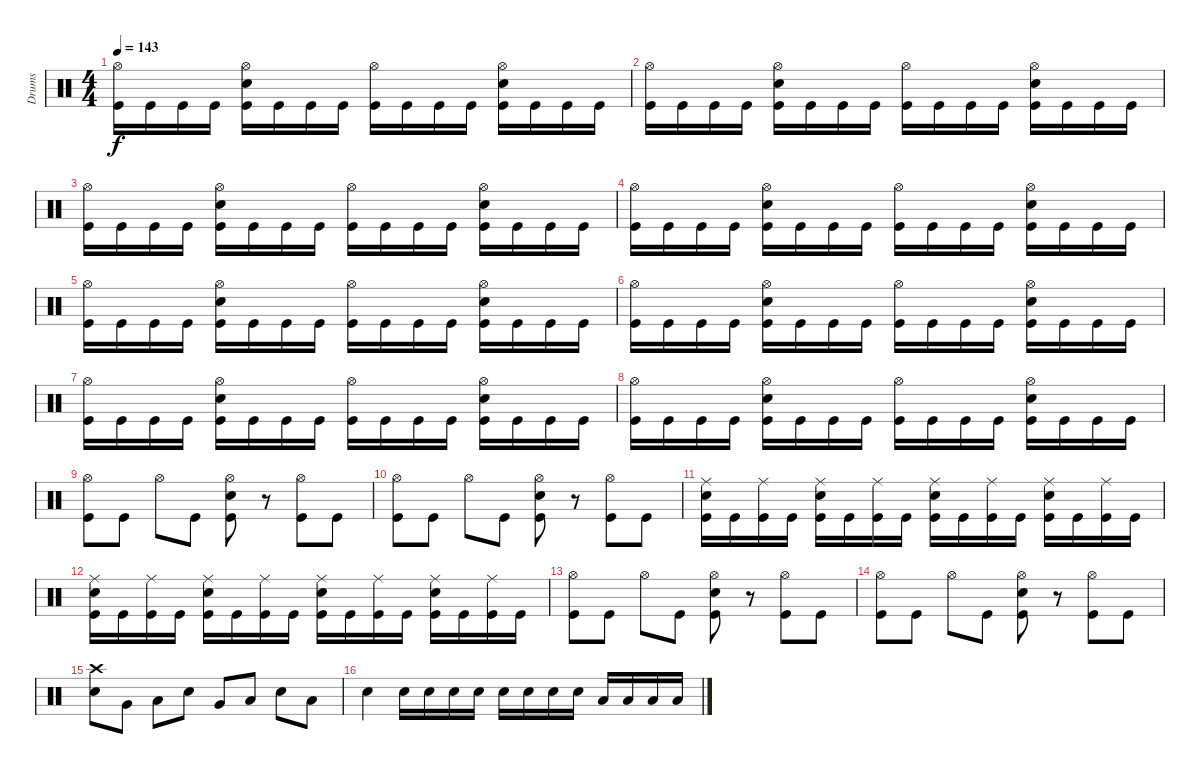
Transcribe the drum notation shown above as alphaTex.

\track ("Drums" "Drums") {instrument percussion}
\staff {score}
\articulation defaults
\ts (4 4)
\tempo 143
\clef neutral
\ks c
("Hi-Hat (open)" "Kick (hit)").16{dy f} "Kick (hit)".16 "Kick (hit)".16 "Kick (hit)".16 ("Hi-Hat (open)" "Snare (hit) 2" "Kick (hit)").16 "Kick (hit)".16 "Kick (hit)".16 "Kick (hit)".16 ("Hi-Hat (open)" "Kick (hit)").16 "Kick (hit)".16 "Kick (hit)".16 "Kick (hit)".16 ("Hi-Hat (open)" "Snare (hit) 2" "Kick (hit)").16 "Kick (hit)".16 "Kick (hit)".16 "Kick (hit)".16 |
("Hi-Hat (open)" "Kick (hit)").16 "Kick (hit)".16 "Kick (hit)".16 "Kick (hit)".16 ("Hi-Hat (open)" "Snare (hit) 2" "Kick (hit)").16 "Kick (hit)".16 "Kick (hit)".16 "Kick (hit)".16 ("Hi-Hat (open)" "Kick (hit)").16 "Kick (hit)".16 "Kick (hit)".16 "Kick (hit)".16 ("Hi-Hat (open)" "Snare (hit) 2" "Kick (hit)").16 "Kick (hit)".16 "Kick (hit)".16 "Kick (hit)".16 |
("Hi-Hat (open)" "Kick (hit)").16 "Kick (hit)".16 "Kick (hit)".16 "Kick (hit)".16 ("Hi-Hat (open)" "Snare (hit) 2" "Kick (hit)").16 "Kick (hit)".16 "Kick (hit)".16 "Kick (hit)".16 ("Hi-Hat (open)" "Kick (hit)").16 "Kick (hit)".16 "Kick (hit)".16 "Kick (hit)".16 ("Hi-Hat (open)" "Snare (hit) 2" "Kick (hit)").16 "Kick (hit)".16 "Kick (hit)".16 "Kick (hit)".16 |
("Hi-Hat (open)" "Kick (hit)").16 "Kick (hit)".16 "Kick (hit)".16 "Kick (hit)".16 ("Hi-Hat (open)" "Snare (hit) 2" "Kick (hit)").16 "Kick (hit)".16 "Kick (hit)".16 "Kick (hit)".16 ("Hi-Hat (open)" "Kick (hit)").16 "Kick (hit)".16 "Kick (hit)".16 "Kick (hit)".16 ("Hi-Hat (open)" "Snare (hit) 2" "Kick (hit)").16 "Kick (hit)".16 "Kick (hit)".16 "Kick (hit)".16 |
("Hi-Hat (open)" "Kick (hit)").16 "Kick (hit)".16 "Kick (hit)".16 "Kick (hit)".16 ("Hi-Hat (open)" "Snare (hit) 2" "Kick (hit)").16 "Kick (hit)".16 "Kick (hit)".16 "Kick (hit)".16 ("Hi-Hat (open)" "Kick (hit)").16 "Kick (hit)".16 "Kick (hit)".16 "Kick (hit)".16 ("Hi-Hat (open)" "Snare (hit) 2" "Kick (hit)").16 "Kick (hit)".16 "Kick (hit)".16 "Kick (hit)".16 |
("Hi-Hat (open)" "Kick (hit)").16 "Kick (hit)".16 "Kick (hit)".16 "Kick (hit)".16 ("Hi-Hat (open)" "Snare (hit) 2" "Kick (hit)").16 "Kick (hit)".16 "Kick (hit)".16 "Kick (hit)".16 ("Hi-Hat (open)" "Kick (hit)").16 "Kick (hit)".16 "Kick (hit)".16 "Kick (hit)".16 ("Hi-Hat (open)" "Snare (hit) 2" "Kick (hit)").16 "Kick (hit)".16 "Kick (hit)".16 "Kick (hit)".16 |
("Hi-Hat (open)" "Kick (hit)").16 "Kick (hit)".16 "Kick (hit)".16 "Kick (hit)".16 ("Hi-Hat (open)" "Snare (hit) 2" "Kick (hit)").16 "Kick (hit)".16 "Kick (hit)".16 "Kick (hit)".16 ("Hi-Hat (open)" "Kick (hit)").16 "Kick (hit)".16 "Kick (hit)".16 "Kick (hit)".16 ("Hi-Hat (open)" "Snare (hit) 2" "Kick (hit)").16 "Kick (hit)".16 "Kick (hit)".16 "Kick (hit)".16 |
("Hi-Hat (open)" "Kick (hit)").16 "Kick (hit)".16 "Kick (hit)".16 "Kick (hit)".16 ("Hi-Hat (open)" "Snare (hit) 2" "Kick (hit)").16 "Kick (hit)".16 "Kick (hit)".16 "Kick (hit)".16 ("Hi-Hat (open)" "Kick (hit)").16 "Kick (hit)".16 "Kick (hit)".16 "Kick (hit)".16 ("Hi-Hat (open)" "Snare (hit) 2" "Kick (hit)").16 "Kick (hit)".16 "Kick (hit)".16 "Kick (hit)".16 |
("Hi-Hat (open)" "Kick (hit)").8 "Kick (hit)".8 "Hi-Hat (open)".8 "Kick (hit)".8 ("Hi-Hat (open)" "Snare (hit) 2" "Kick (hit)").8 r.8 ("Hi-Hat (open)" "Kick (hit)").8 "Kick (hit)".8 |
("Hi-Hat (open)" "Kick (hit)").8 "Kick (hit)".8 "Hi-Hat (open)".8 "Kick (hit)".8 ("Hi-Hat (open)" "Snare (hit) 2" "Kick (hit)").8 r.8 ("Hi-Hat (open)" "Kick (hit)").8 "Kick (hit)".8 |
("Ride (middle)" "Snare (hit) 2" "Kick (hit)").16 "Kick (hit)".16 ("Ride (middle)" "Kick (hit)").16 "Kick (hit)".16 ("Ride (middle)" "Snare (hit) 2" "Kick (hit)").16 "Kick (hit)".16 ("Ride (middle)" "Kick (hit)").16 "Kick (hit)".16 ("Ride (middle)" "Snare (hit) 2" "Kick (hit)").16 "Kick (hit)".16 ("Ride (middle)" "Kick (hit)").16 "Kick (hit)".16 ("Ride (middle)" "Snare (hit) 2" "Kick (hit)").16 "Kick (hit)".16 ("Ride (middle)" "Kick (hit)").16 "Kick (hit)".16 |
("Ride (middle)" "Snare (hit) 2" "Kick (hit)").16 "Kick (hit)".16 ("Ride (middle)" "Kick (hit)").16 "Kick (hit)".16 ("Ride (middle)" "Snare (hit) 2" "Kick (hit)").16 "Kick (hit)".16 ("Ride (middle)" "Kick (hit)").16 "Kick (hit)".16 ("Ride (middle)" "Snare (hit) 2" "Kick (hit)").16 "Kick (hit)".16 ("Ride (middle)" "Kick (hit)").16 "Kick (hit)".16 ("Ride (middle)" "Snare (hit) 2" "Kick (hit)").16 "Kick (hit)".16 ("Ride (middle)" "Kick (hit)").16 "Kick (hit)".16 |
("Hi-Hat (open)" "Kick (hit)").8 "Kick (hit)".8 "Hi-Hat (open)".8 "Kick (hit)".8 ("Hi-Hat (open)" "Snare (hit) 2" "Kick (hit)").8 r.8 ("Hi-Hat (open)" "Kick (hit)").8 "Kick (hit)".8 |
("Hi-Hat (open)" "Kick (hit)").8 "Kick (hit)".8 "Hi-Hat (open)".8 "Kick (hit)".8 ("Hi-Hat (open)" "Snare (hit) 2" "Kick (hit)").8 r.8 ("Hi-Hat (open)" "Kick (hit)").8 "Kick (hit)".8 |
("Crash high (hit)" "Snare (hit) 2").8 "Very Low Tom (hit)".8 "Low Tom (hit)".8 "Snare (hit) 2".8 "Very Low Tom (hit)".8 "Low Tom (hit)".8 "Snare (hit) 2".8 "Low Tom (hit)".8 |
"Snare (hit) 2".4 "Snare (hit) 2".16 "Snare (hit) 2".16 "Snare (hit) 2".16 "Snare (hit) 2".16 "Snare (hit) 2".16 "Snare (hit) 2".16 "Snare (hit) 2".16 "Snare (hit) 2".16 "Low Tom (hit)".16 "Low Tom (hit)".16 "Low Tom (hit)".16 "Low Tom (hit)".16
